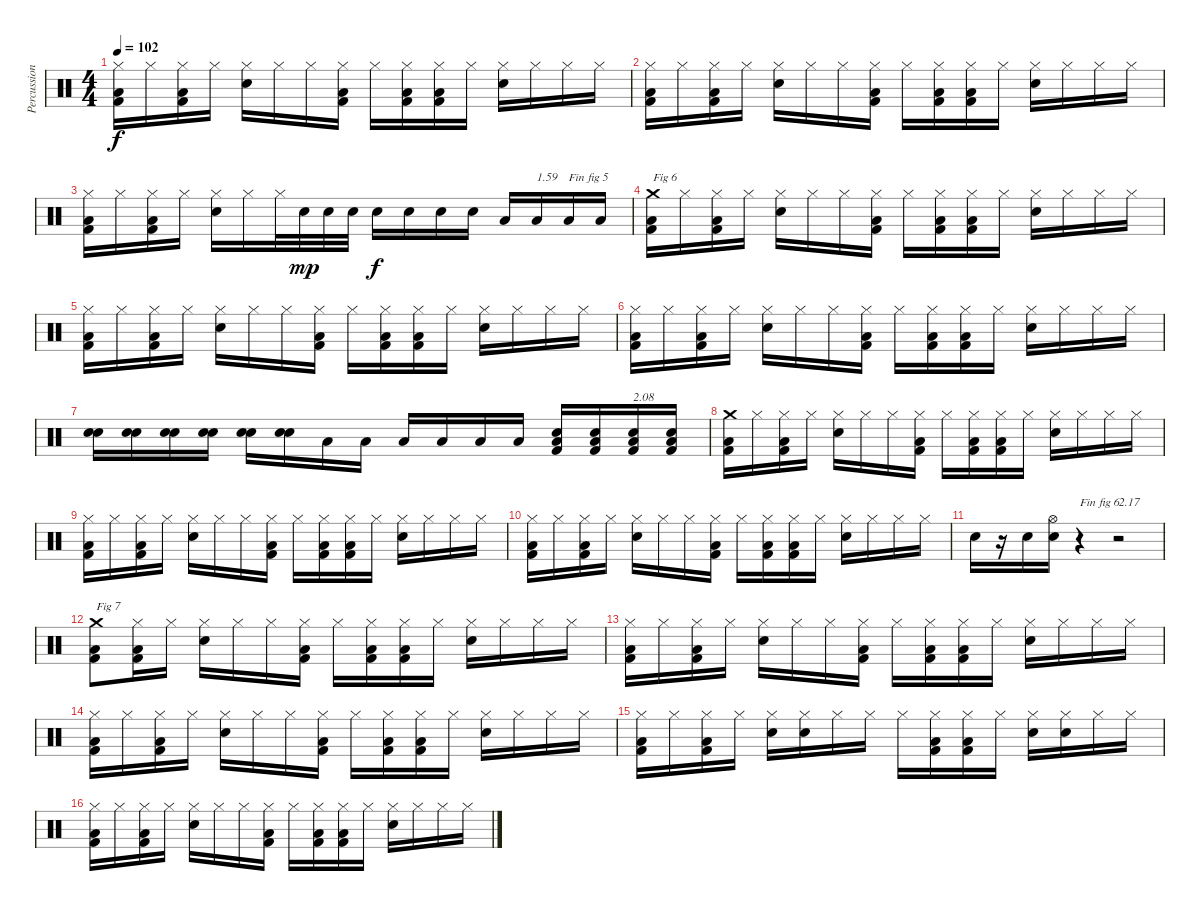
\track ("Percussions" "Percussion") {instrument percussion}
\staff {score}
\articulation defaults
\ts (4 4)
\tempo 102
\clef neutral
\ks c
("Kick (hit) 2" "Low Floor Tom (hit)" "Hi-Hat (closed)").16{dy f} "Hi-Hat (closed)".16 ("Kick (hit) 2" "Low Floor Tom (hit)" "Hi-Hat (closed)").16 "Hi-Hat (closed)".16 ("Snare (hit) 2" "Hi-Hat (closed)").16 "Hi-Hat (closed)".16 "Hi-Hat (closed)".16 ("Kick (hit) 2" "Low Floor Tom (hit)" "Hi-Hat (closed)").16 "Hi-Hat (closed)".16 ("Kick (hit) 2" "Low Floor Tom (hit)" "Hi-Hat (closed)").16 ("Kick (hit) 2" "Low Floor Tom (hit)" "Hi-Hat (closed)").16 "Hi-Hat (closed)".16 ("Snare (hit) 2" "Hi-Hat (closed)").16 "Hi-Hat (closed)".16 "Hi-Hat (closed)".16 "Hi-Hat (closed)".16 |
("Kick (hit) 2" "Low Floor Tom (hit)" "Hi-Hat (closed)").16 "Hi-Hat (closed)".16 ("Kick (hit) 2" "Low Floor Tom (hit)" "Hi-Hat (closed)").16 "Hi-Hat (closed)".16 ("Snare (hit) 2" "Hi-Hat (closed)").16 "Hi-Hat (closed)".16 "Hi-Hat (closed)".16 ("Kick (hit) 2" "Low Floor Tom (hit)" "Hi-Hat (closed)").16 "Hi-Hat (closed)".16 ("Kick (hit) 2" "Low Floor Tom (hit)" "Hi-Hat (closed)").16 ("Kick (hit) 2" "Low Floor Tom (hit)" "Hi-Hat (closed)").16 "Hi-Hat (closed)".16 ("Snare (hit) 2" "Hi-Hat (closed)").16 "Hi-Hat (closed)".16 "Hi-Hat (closed)".16 "Hi-Hat (closed)".16 |
("Kick (hit) 2" "Low Floor Tom (hit)" "Hi-Hat (closed)").16 "Hi-Hat (closed)".16 ("Kick (hit) 2" "Low Floor Tom (hit)" "Hi-Hat (closed)").16 "Hi-Hat (closed)".16 ("Snare (hit) 2" "Hi-Hat (closed)").16 "Hi-Hat (closed)".16 "Hi-Hat (closed)".32 "Snare (hit) 2".32{dy mp} "Snare (hit) 2".32 "Snare (hit) 2".32 "Snare (hit) 2".16{dy f} "Snare (hit) 2".16 "Snare (hit) 2".16 "Snare (hit) 2".16 "Low Tom (hit)".16 "Low Tom (hit)".16{txt "1.59"} "Low Tom (hit)".16{txt "Fin fig 5"} "Low Tom (hit)".16 |
("Kick (hit) 2" "Low Floor Tom (hit)" "Crash medium (hit)").16{txt "Fig 6"} "Hi-Hat (closed)".16 ("Kick (hit) 2" "Low Floor Tom (hit)" "Hi-Hat (closed)").16 "Hi-Hat (closed)".16 ("Snare (hit) 2" "Hi-Hat (closed)").16 "Hi-Hat (closed)".16 "Hi-Hat (closed)".16 ("Kick (hit) 2" "Low Floor Tom (hit)" "Hi-Hat (closed)").16 "Hi-Hat (closed)".16 ("Kick (hit) 2" "Low Floor Tom (hit)" "Hi-Hat (closed)").16 ("Kick (hit) 2" "Low Floor Tom (hit)" "Hi-Hat (closed)").16 "Hi-Hat (closed)".16 ("Snare (hit) 2" "Hi-Hat (closed)").16 "Hi-Hat (closed)".16 "Hi-Hat (closed)".16 "Hi-Hat (closed)".16 |
("Kick (hit) 2" "Low Floor Tom (hit)" "Hi-Hat (closed)").16 "Hi-Hat (closed)".16 ("Kick (hit) 2" "Low Floor Tom (hit)" "Hi-Hat (closed)").16 "Hi-Hat (closed)".16 ("Snare (hit) 2" "Hi-Hat (closed)").16 "Hi-Hat (closed)".16 "Hi-Hat (closed)".16 ("Kick (hit) 2" "Low Floor Tom (hit)" "Hi-Hat (closed)").16 "Hi-Hat (closed)".16 ("Kick (hit) 2" "Low Floor Tom (hit)" "Hi-Hat (closed)").16 ("Kick (hit) 2" "Low Floor Tom (hit)" "Hi-Hat (closed)").16 "Hi-Hat (closed)".16 ("Snare (hit) 2" "Hi-Hat (closed)").16 "Hi-Hat (closed)".16 "Hi-Hat (closed)".16 "Hi-Hat (closed)".16 |
("Kick (hit) 2" "Low Floor Tom (hit)" "Hi-Hat (closed)").16 "Hi-Hat (closed)".16 ("Kick (hit) 2" "Low Floor Tom (hit)" "Hi-Hat (closed)").16 "Hi-Hat (closed)".16 ("Snare (hit) 2" "Hi-Hat (closed)").16 "Hi-Hat (closed)".16 "Hi-Hat (closed)".16 ("Kick (hit) 2" "Low Floor Tom (hit)" "Hi-Hat (closed)").16 "Hi-Hat (closed)".16 ("Kick (hit) 2" "Low Floor Tom (hit)" "Hi-Hat (closed)").16 ("Kick (hit) 2" "Low Floor Tom (hit)" "Hi-Hat (closed)").16 "Hi-Hat (closed)".16 ("Snare (hit) 2" "Hi-Hat (closed)").16 "Hi-Hat (closed)".16 "Hi-Hat (closed)".16 "Hi-Hat (closed)".16 |
("Electric Snare (hit)" "Hand Clap (hit)").16 ("Electric Snare (hit)" "Hand Clap (hit)").16 ("Electric Snare (hit)" "Hand Clap (hit)").16 ("Electric Snare (hit)" "Hand Clap (hit)").16 ("Electric Snare (hit)" "Hand Clap (hit)").16 ("Electric Snare (hit)" "Hand Clap (hit)").16 "Low Tom (hit)".16 "Low Tom (hit)".16 "Low Tom (hit)".16 "Low Tom (hit)".16 "Low Tom (hit)".16 "Low Tom (hit)".16 ("Kick (hit) 2" "Low Floor Tom (hit)" "Snare (hit) 2").16 ("Kick (hit) 2" "Low Floor Tom (hit)" "Snare (hit) 2").16 ("Kick (hit) 2" "Low Floor Tom (hit)" "Snare (hit) 2").16{txt "2.08"} ("Kick (hit) 2" "Low Floor Tom (hit)" "Snare (hit) 2").16 |
("Kick (hit) 2" "Low Floor Tom (hit)" "Crash medium (hit)").16 "Hi-Hat (closed)".16 ("Kick (hit) 2" "Low Floor Tom (hit)" "Hi-Hat (closed)").16 "Hi-Hat (closed)".16 ("Snare (hit) 2" "Hi-Hat (closed)").16 "Hi-Hat (closed)".16 "Hi-Hat (closed)".16 ("Kick (hit) 2" "Low Floor Tom (hit)" "Hi-Hat (closed)").16 "Hi-Hat (closed)".16 ("Kick (hit) 2" "Low Floor Tom (hit)" "Hi-Hat (closed)").16 ("Kick (hit) 2" "Low Floor Tom (hit)" "Hi-Hat (closed)").16 "Hi-Hat (closed)".16 ("Snare (hit) 2" "Hi-Hat (closed)").16 "Hi-Hat (closed)".16 "Hi-Hat (closed)".16 "Hi-Hat (closed)".16 |
("Kick (hit) 2" "Low Floor Tom (hit)" "Hi-Hat (closed)").16 "Hi-Hat (closed)".16 ("Kick (hit) 2" "Low Floor Tom (hit)" "Hi-Hat (closed)").16 "Hi-Hat (closed)".16 ("Snare (hit) 2" "Hi-Hat (closed)").16 "Hi-Hat (closed)".16 "Hi-Hat (closed)".16 ("Kick (hit) 2" "Low Floor Tom (hit)" "Hi-Hat (closed)").16 "Hi-Hat (closed)".16 ("Kick (hit) 2" "Low Floor Tom (hit)" "Hi-Hat (closed)").16 ("Kick (hit) 2" "Low Floor Tom (hit)" "Hi-Hat (closed)").16 "Hi-Hat (closed)".16 ("Snare (hit) 2" "Hi-Hat (closed)").16 "Hi-Hat (closed)".16 "Hi-Hat (closed)".16 "Hi-Hat (closed)".16 |
("Kick (hit) 2" "Low Floor Tom (hit)" "Hi-Hat (closed)").16 "Hi-Hat (closed)".16 ("Kick (hit) 2" "Low Floor Tom (hit)" "Hi-Hat (closed)").16 "Hi-Hat (closed)".16 ("Snare (hit) 2" "Hi-Hat (closed)").16 "Hi-Hat (closed)".16 "Hi-Hat (closed)".16 ("Kick (hit) 2" "Low Floor Tom (hit)" "Hi-Hat (closed)").16 "Hi-Hat (closed)".16 ("Kick (hit) 2" "Low Floor Tom (hit)" "Hi-Hat (closed)").16 ("Kick (hit) 2" "Low Floor Tom (hit)" "Hi-Hat (closed)").16 "Hi-Hat (closed)".16 ("Snare (hit) 2" "Hi-Hat (closed)").16 "Hi-Hat (closed)".16 "Hi-Hat (closed)".16 "Hi-Hat (closed)".16 |
"Snare (hit) 2".16 r.16 "Snare (hit) 2".16 ("Snare (hit) 2" "Hi-Hat (open)").16 r.4{txt "Fin fig 6"} r.2{txt "2.17"} |
("Kick (hit) 2" "Low Floor Tom (hit)" "Crash medium (hit)").8{txt "Fig 7"} ("Kick (hit) 2" "Low Floor Tom (hit)" "Hi-Hat (closed)").16 "Hi-Hat (closed)".16 ("Snare (hit) 2" "Hi-Hat (closed)").16 "Hi-Hat (closed)".16 "Hi-Hat (closed)".16 ("Kick (hit) 2" "Low Floor Tom (hit)" "Hi-Hat (closed)").16 "Hi-Hat (closed)".16 ("Kick (hit) 2" "Low Floor Tom (hit)" "Hi-Hat (closed)").16 ("Kick (hit) 2" "Low Floor Tom (hit)" "Hi-Hat (closed)").16 "Hi-Hat (closed)".16 ("Snare (hit) 2" "Hi-Hat (closed)").16 "Hi-Hat (closed)".16 "Hi-Hat (closed)".16 "Hi-Hat (closed)".16 |
("Kick (hit) 2" "Low Floor Tom (hit)" "Hi-Hat (closed)").16 "Hi-Hat (closed)".16 ("Kick (hit) 2" "Low Floor Tom (hit)" "Hi-Hat (closed)").16 "Hi-Hat (closed)".16 ("Snare (hit) 2" "Hi-Hat (closed)").16 "Hi-Hat (closed)".16 "Hi-Hat (closed)".16 ("Kick (hit) 2" "Low Floor Tom (hit)" "Hi-Hat (closed)").16 "Hi-Hat (closed)".16 ("Kick (hit) 2" "Low Floor Tom (hit)" "Hi-Hat (closed)").16 ("Kick (hit) 2" "Low Floor Tom (hit)" "Hi-Hat (closed)").16 "Hi-Hat (closed)".16 ("Snare (hit) 2" "Hi-Hat (closed)").16 "Hi-Hat (closed)".16 "Hi-Hat (closed)".16 "Hi-Hat (closed)".16 |
("Kick (hit) 2" "Low Floor Tom (hit)" "Hi-Hat (closed)").16 "Hi-Hat (closed)".16 ("Kick (hit) 2" "Low Floor Tom (hit)" "Hi-Hat (closed)").16 "Hi-Hat (closed)".16 ("Snare (hit) 2" "Hi-Hat (closed)").16 "Hi-Hat (closed)".16 "Hi-Hat (closed)".16 ("Kick (hit) 2" "Low Floor Tom (hit)" "Hi-Hat (closed)").16 "Hi-Hat (closed)".16 ("Kick (hit) 2" "Low Floor Tom (hit)" "Hi-Hat (closed)").16 ("Kick (hit) 2" "Low Floor Tom (hit)" "Hi-Hat (closed)").16 "Hi-Hat (closed)".16 ("Snare (hit) 2" "Hi-Hat (closed)").16 "Hi-Hat (closed)".16 "Hi-Hat (closed)".16 "Hi-Hat (closed)".16 |
("Kick (hit) 2" "Low Floor Tom (hit)" "Hi-Hat (closed)").16 "Hi-Hat (closed)".16 ("Kick (hit) 2" "Low Floor Tom (hit)" "Hi-Hat (closed)").16 "Hi-Hat (closed)".16 ("Snare (hit) 2" "Hi-Hat (closed)").16 ("Snare (hit) 2" "Hi-Hat (closed)").16 "Hi-Hat (closed)".16 "Hi-Hat (closed)".16 "Hi-Hat (closed)".16 ("Kick (hit) 2" "Low Floor Tom (hit)" "Hi-Hat (closed)").16 ("Kick (hit) 2" "Low Floor Tom (hit)" "Hi-Hat (closed)").16 "Hi-Hat (closed)".16 ("Snare (hit) 2" "Hi-Hat (closed)").16 ("Snare (hit) 2" "Hi-Hat (closed)").16 "Hi-Hat (closed)".16 "Hi-Hat (closed)".16 |
("Kick (hit) 2" "Low Floor Tom (hit)" "Hi-Hat (closed)").16 "Hi-Hat (closed)".16 ("Kick (hit) 2" "Low Floor Tom (hit)" "Hi-Hat (closed)").16 "Hi-Hat (closed)".16 ("Snare (hit) 2" "Hi-Hat (closed)").16 "Hi-Hat (closed)".16 "Hi-Hat (closed)".16 ("Kick (hit) 2" "Low Floor Tom (hit)" "Hi-Hat (closed)").16 "Hi-Hat (closed)".16 ("Kick (hit) 2" "Low Floor Tom (hit)" "Hi-Hat (closed)").16 ("Kick (hit) 2" "Low Floor Tom (hit)" "Hi-Hat (closed)").16 "Hi-Hat (closed)".16 ("Snare (hit) 2" "Hi-Hat (closed)").16 "Hi-Hat (closed)".16 "Hi-Hat (closed)".16 "Hi-Hat (closed)".16
